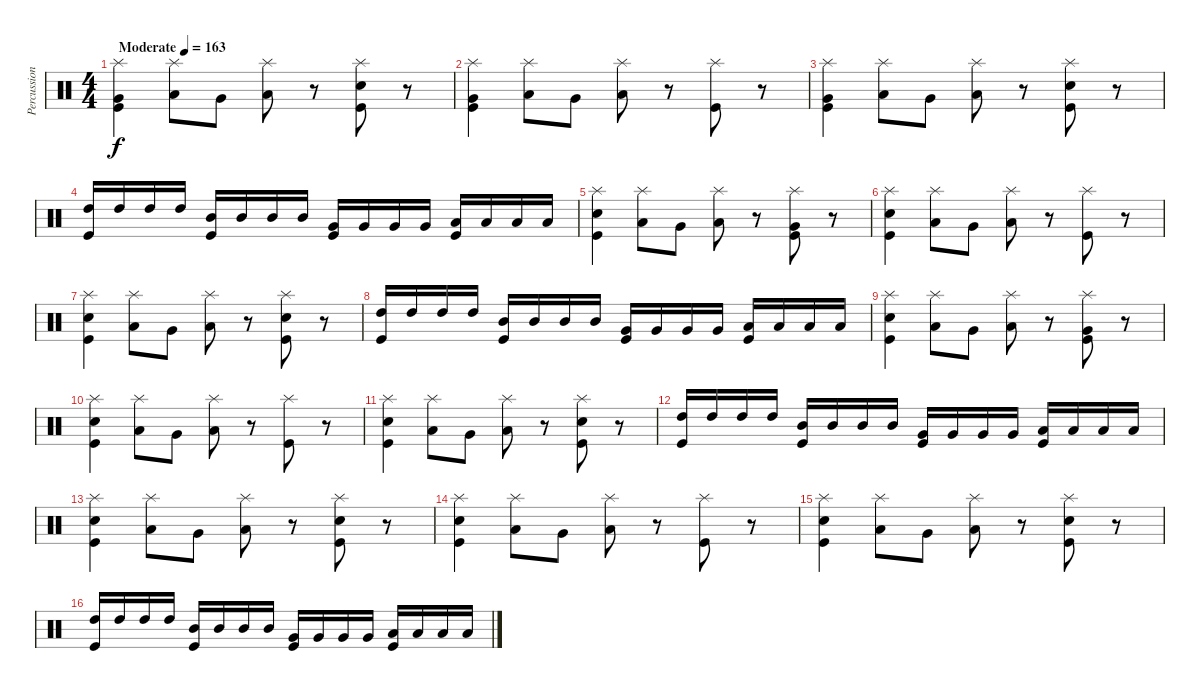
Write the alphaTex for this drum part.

\track ("Percussions" "Percussion") {instrument percussion}
\staff {score}
\articulation defaults
\ts (4 4)
\tempo (163 "Moderate")
\clef neutral
\ks c
("Splash (hit)" "Very Low Tom (hit)" "Kick (hit)").4{dy f} ("Splash (hit)" "Low Floor Tom (hit)").8 "Very Low Tom (hit)".8 ("Splash (hit)" "Low Floor Tom (hit)").8 r.8 ("Splash (hit)" "Snare (hit) 2" "Kick (hit)").8 r.8 |
("Splash (hit)" "Very Low Tom (hit)" "Kick (hit)").4 ("Splash (hit)" "Low Floor Tom (hit)").8 "Very Low Tom (hit)".8 ("Splash (hit)" "Low Floor Tom (hit)").8 r.8 ("Splash (hit)" "Kick (hit)").8 r.8 |
("Splash (hit)" "Very Low Tom (hit)" "Kick (hit)").4 ("Splash (hit)" "Low Floor Tom (hit)").8 "Very Low Tom (hit)".8 ("Splash (hit)" "Low Floor Tom (hit)").8 r.8 ("Splash (hit)" "Snare (hit) 2" "Kick (hit)").8 r.8 |
("High Tom (hit)" "Kick (hit)").16 "High Tom (hit)".16 "High Tom (hit)".16 "High Tom (hit)".16 ("Mid Tom (hit)" "Kick (hit)").16 "Mid Tom (hit)".16 "Mid Tom (hit)".16 "Mid Tom (hit)".16 ("Very Low Tom (hit)" "Kick (hit)").16 "Very Low Tom (hit)".16 "Very Low Tom (hit)".16 "Very Low Tom (hit)".16 ("Low Floor Tom (hit)" "Kick (hit)").16 "Low Floor Tom (hit)".16 "Low Floor Tom (hit)".16 "Low Floor Tom (hit)".16 |
("Splash (hit)" "Snare (hit) 2" "Kick (hit)").4 ("Splash (hit)" "Low Floor Tom (hit)").8 "Very Low Tom (hit)".8 ("Splash (hit)" "Low Floor Tom (hit)").8 r.8 ("Splash (hit)" "Very Low Tom (hit)" "Kick (hit)").8 r.8 |
("Splash (hit)" "Snare (hit) 2" "Kick (hit)").4 ("Splash (hit)" "Low Floor Tom (hit)").8 "Very Low Tom (hit)".8 ("Splash (hit)" "Low Floor Tom (hit)").8 r.8 ("Splash (hit)" "Kick (hit)").8 r.8 |
("Splash (hit)" "Snare (hit) 2" "Kick (hit)").4 ("Splash (hit)" "Low Floor Tom (hit)").8 "Very Low Tom (hit)".8 ("Splash (hit)" "Low Floor Tom (hit)").8 r.8 ("Splash (hit)" "Snare (hit) 2" "Kick (hit)").8 r.8 |
("High Tom (hit)" "Kick (hit)").16 "High Tom (hit)".16 "High Tom (hit)".16 "High Tom (hit)".16 ("Mid Tom (hit)" "Kick (hit)").16 "Mid Tom (hit)".16 "Mid Tom (hit)".16 "Mid Tom (hit)".16 ("Very Low Tom (hit)" "Kick (hit)").16 "Very Low Tom (hit)".16 "Very Low Tom (hit)".16 "Very Low Tom (hit)".16 ("Low Floor Tom (hit)" "Kick (hit)").16 "Low Floor Tom (hit)".16 "Low Floor Tom (hit)".16 "Low Floor Tom (hit)".16 |
("Splash (hit)" "Snare (hit) 2" "Kick (hit)").4 ("Splash (hit)" "Low Floor Tom (hit)").8 "Very Low Tom (hit)".8 ("Splash (hit)" "Low Floor Tom (hit)").8 r.8 ("Splash (hit)" "Very Low Tom (hit)" "Kick (hit)").8 r.8 |
("Splash (hit)" "Snare (hit) 2" "Kick (hit)").4 ("Splash (hit)" "Low Floor Tom (hit)").8 "Very Low Tom (hit)".8 ("Splash (hit)" "Low Floor Tom (hit)").8 r.8 ("Splash (hit)" "Kick (hit)").8 r.8 |
("Splash (hit)" "Snare (hit) 2" "Kick (hit)").4 ("Splash (hit)" "Low Floor Tom (hit)").8 "Very Low Tom (hit)".8 ("Splash (hit)" "Low Floor Tom (hit)").8 r.8 ("Splash (hit)" "Snare (hit) 2" "Kick (hit)").8 r.8 |
("High Tom (hit)" "Kick (hit)").16 "High Tom (hit)".16 "High Tom (hit)".16 "High Tom (hit)".16 ("Mid Tom (hit)" "Kick (hit)").16 "Mid Tom (hit)".16 "Mid Tom (hit)".16 "Mid Tom (hit)".16 ("Very Low Tom (hit)" "Kick (hit)").16 "Very Low Tom (hit)".16 "Very Low Tom (hit)".16 "Very Low Tom (hit)".16 ("Low Floor Tom (hit)" "Kick (hit)").16 "Low Floor Tom (hit)".16 "Low Floor Tom (hit)".16 "Low Floor Tom (hit)".16 |
("Splash (hit)" "Snare (hit) 2" "Kick (hit)").4 ("Splash (hit)" "Low Floor Tom (hit)").8 "Very Low Tom (hit)".8 ("Splash (hit)" "Low Floor Tom (hit)").8 r.8 ("Splash (hit)" "Snare (hit) 2" "Kick (hit)").8 r.8 |
("Splash (hit)" "Snare (hit) 2" "Kick (hit)").4 ("Splash (hit)" "Low Floor Tom (hit)").8 "Very Low Tom (hit)".8 ("Splash (hit)" "Low Floor Tom (hit)").8 r.8 ("Splash (hit)" "Kick (hit)").8 r.8 |
("Splash (hit)" "Snare (hit) 2" "Kick (hit)").4 ("Splash (hit)" "Low Floor Tom (hit)").8 "Very Low Tom (hit)".8 ("Splash (hit)" "Low Floor Tom (hit)").8 r.8 ("Splash (hit)" "Snare (hit) 2" "Kick (hit)").8 r.8 |
("High Tom (hit)" "Kick (hit)").16 "High Tom (hit)".16 "High Tom (hit)".16 "High Tom (hit)".16 ("Mid Tom (hit)" "Kick (hit)").16 "Mid Tom (hit)".16 "Mid Tom (hit)".16 "Mid Tom (hit)".16 ("Very Low Tom (hit)" "Kick (hit)").16 "Very Low Tom (hit)".16 "Very Low Tom (hit)".16 "Very Low Tom (hit)".16 ("Low Floor Tom (hit)" "Kick (hit)").16 "Low Floor Tom (hit)".16 "Low Floor Tom (hit)".16 "Low Floor Tom (hit)".16
